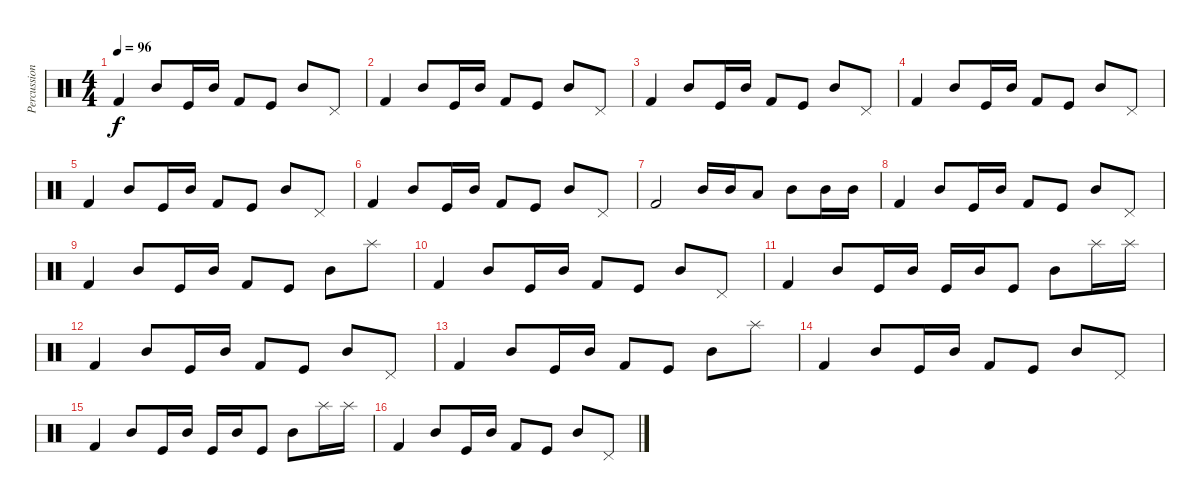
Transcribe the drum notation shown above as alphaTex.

\track ("Percussions" "Percussion") {instrument percussion}
\staff {score}
\articulation defaults
\ts (4 4)
\tempo 96
\clef neutral
\ks c "Kick (hit) 2".4{dy f} "Mid Tom (hit)".8 "Kick (hit)".16 "Mid Tom (hit)".16 "Kick (hit) 2".8 "Kick (hit)".8 "Mid Tom (hit)".8 "Pedal Hi-Hat (hit)".8
|
"Kick (hit) 2".4 "Mid Tom (hit)".8 "Kick (hit)".16 "Mid Tom (hit)".16 "Kick (hit) 2".8 "Kick (hit)".8 "Mid Tom (hit)".8 "Pedal Hi-Hat (hit)".8 |
"Kick (hit) 2".4 "Mid Tom (hit)".8 "Kick (hit)".16 "Mid Tom (hit)".16 "Kick (hit) 2".8 "Kick (hit)".8 "Mid Tom (hit)".8 "Pedal Hi-Hat (hit)".8 |
"Kick (hit) 2".4 "Mid Tom (hit)".8 "Kick (hit)".16 "Mid Tom (hit)".16 "Kick (hit) 2".8 "Kick (hit)".8 "Mid Tom (hit)".8 "Pedal Hi-Hat (hit)".8 |
"Kick (hit) 2".4 "Mid Tom (hit)".8 "Kick (hit)".16 "Mid Tom (hit)".16 "Kick (hit) 2".8 "Kick (hit)".8 "Mid Tom (hit)".8 "Pedal Hi-Hat (hit)".8 |
"Kick (hit) 2".4 "Mid Tom (hit)".8 "Kick (hit)".16 "Mid Tom (hit)".16 "Kick (hit) 2".8 "Kick (hit)".8 "Mid Tom (hit)".8 "Pedal Hi-Hat (hit)".8 |
"Kick (hit) 2".2 "Mid Tom (hit)".16 "Mid Tom (hit)".16 "Low Floor Tom (hit)".8 "Mid Tom (hit)".8 "Mid Tom (hit)".16 "Mid Tom (hit)".16 |
"Kick (hit) 2".4{volume 16} "Mid Tom (hit)".8 "Kick (hit)".16 "Mid Tom (hit)".16 "Kick (hit) 2".8 "Kick (hit)".8 "Mid Tom (hit)".8 "Pedal Hi-Hat (hit)".8 |
"Kick (hit) 2".4 "Mid Tom (hit)".8 "Kick (hit)".16 "Mid Tom (hit)".16 "Kick (hit) 2".8 "Kick (hit)".8 "Mid Tom (hit)".8 "Splash (hit)".8 |
"Kick (hit) 2".4 "Mid Tom (hit)".8 "Kick (hit)".16 "Mid Tom (hit)".16 "Kick (hit) 2".8 "Kick (hit)".8 "Mid Tom (hit)".8 "Pedal Hi-Hat (hit)".8 |
"Kick (hit) 2".4 "Mid Tom (hit)".8 "Kick (hit)".16 "Mid Tom (hit)".16 "Kick (hit)".16 "Mid Tom (hit)".16 "Kick (hit)".8 "Mid Tom (hit)".8 "Splash (hit)".16 "Splash (hit)".16 |
"Kick (hit) 2".4 "Mid Tom (hit)".8 "Kick (hit)".16 "Mid Tom (hit)".16 "Kick (hit) 2".8 "Kick (hit)".8 "Mid Tom (hit)".8 "Pedal Hi-Hat (hit)".8 |
"Kick (hit) 2".4 "Mid Tom (hit)".8 "Kick (hit)".16 "Mid Tom (hit)".16 "Kick (hit) 2".8 "Kick (hit)".8 "Mid Tom (hit)".8 "Splash (hit)".8 |
"Kick (hit) 2".4 "Mid Tom (hit)".8 "Kick (hit)".16 "Mid Tom (hit)".16 "Kick (hit) 2".8 "Kick (hit)".8 "Mid Tom (hit)".8 "Pedal Hi-Hat (hit)".8 |
"Kick (hit) 2".4 "Mid Tom (hit)".8 "Kick (hit)".16 "Mid Tom (hit)".16 "Kick (hit)".16 "Mid Tom (hit)".16 "Kick (hit)".8 "Mid Tom (hit)".8 "Splash (hit)".16 "Splash (hit)".16 |
"Kick (hit) 2".4{volume 9} "Mid Tom (hit)".8 "Kick (hit)".16 "Mid Tom (hit)".16 "Kick (hit) 2".8 "Kick (hit)".8 "Mid Tom (hit)".8 "Pedal Hi-Hat (hit)".8
